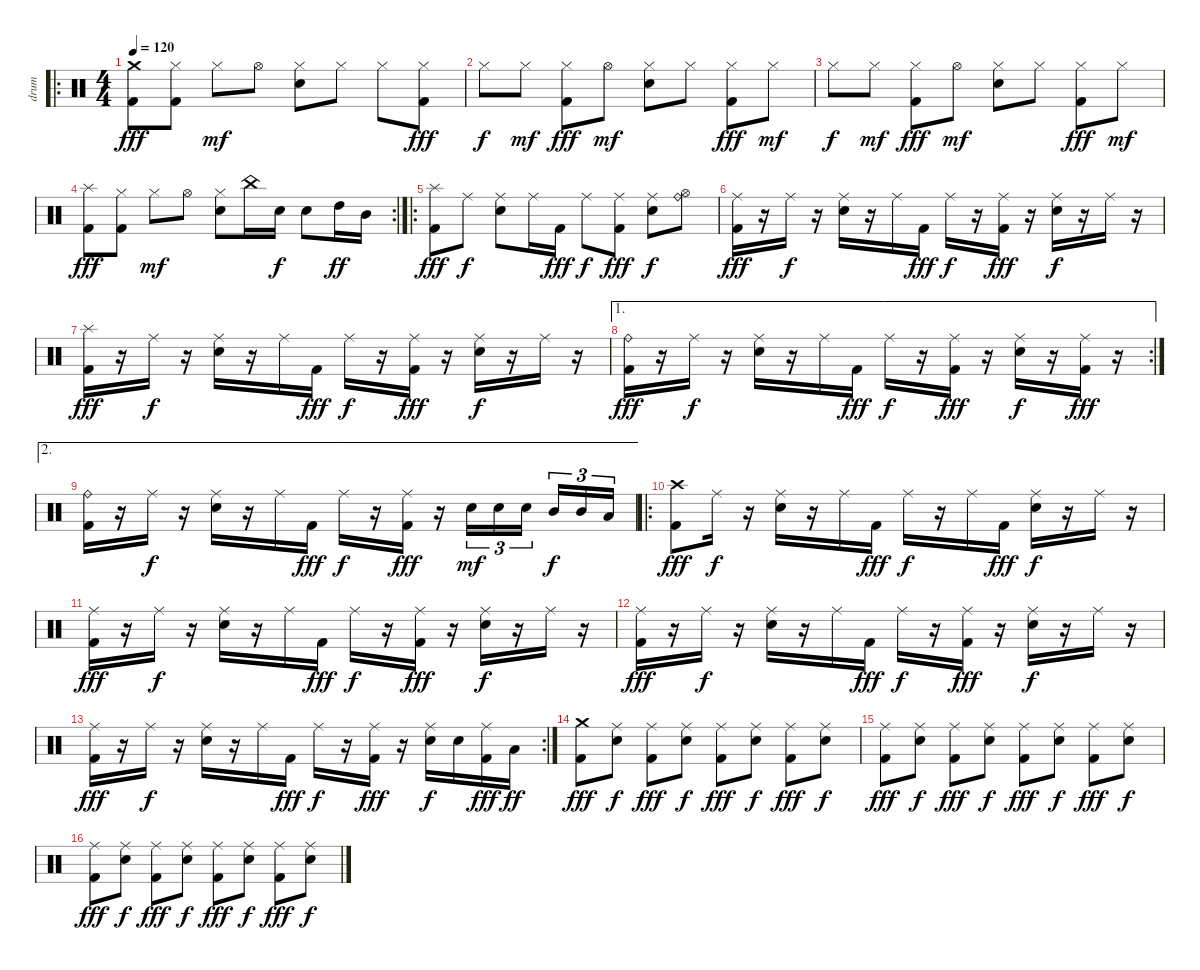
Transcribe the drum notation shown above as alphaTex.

\track ("drum" "drum") {instrument percussion}
\staff {score}
\articulation defaults
\ro
\ts (4 4)
\tempo 120
\clef neutral
\ks c
("Crash medium (hit)" "Kick (hit) 2").8{dy fff} ("Hi-Hat (closed)" "Kick (hit) 2").8 "Hi-Hat (closed)".8{dy mf} "Hi-Hat (open)".8 ("Hi-Hat (closed)" "Electric Snare (hit)").8 "Hi-Hat (closed)".8 "Hi-Hat (closed)".8 ("Hi-Hat (closed)" "Kick (hit) 2").8{dy fff} |
"Hi-Hat (closed)".8{dy f} "Hi-Hat (closed)".8{dy mf} ("Hi-Hat (closed)" "Kick (hit) 2").8{dy fff} "Hi-Hat (open)".8{dy mf} ("Hi-Hat (closed)" "Electric Snare (hit)").8 "Hi-Hat (closed)".8 ("Hi-Hat (closed)" "Kick (hit) 2").8{dy fff} "Hi-Hat (closed)".8{dy mf} |
"Hi-Hat (closed)".8{dy f} "Hi-Hat (closed)".8{dy mf} ("Hi-Hat (closed)" "Kick (hit) 2").8{dy fff} "Hi-Hat (open)".8{dy mf} ("Hi-Hat (closed)" "Electric Snare (hit)").8 "Hi-Hat (closed)".8 ("Hi-Hat (closed)" "Kick (hit) 2").8{dy fff} "Hi-Hat (closed)".8{dy mf} |
\rc 2
("Splash (hit)" "Kick (hit) 2").8{dy fff} ("Hi-Hat (closed)" "Kick (hit) 2").8 "Hi-Hat (closed)".8{dy mf} "Hi-Hat (open)".8 ("Hi-Hat (closed)" "Electric Snare (hit)").8 "China (hit)".16 "Electric Snare (hit)".16{dy f} "Electric Snare (hit)".8 "High Tom (hit)".16{dy ff} "Mid Tom (hit)".16 |
\ro
("Splash (hit)" "Kick (hit) 2").8{dy fff} "Ride (middle)".8{dy f} ("Ride (middle)" "Electric Snare (hit)").8 "Ride (middle)".16 "Kick (hit) 2".16{dy fff} "Ride (middle)".8{dy f} ("Ride (middle)" "Kick (hit) 2").8{dy fff} ("Ride (middle)" "Electric Snare (hit)").8{dy f} ("Ride (bell)" "Hi-Hat (open)").8 |
("Ride (middle)" "Kick (hit) 2").16{dy fff} r.16 "Ride (middle)".16{dy f} r.16 ("Ride (middle)" "Electric Snare (hit)").16 r.16 "Ride (middle)".16 "Kick (hit) 2".16{dy fff} "Ride (middle)".16{dy f} r.16 ("Ride (middle)" "Kick (hit) 2").16{dy fff} r.16 ("Ride (middle)" "Electric Snare (hit)").16{dy f} r.16 "Ride (middle)".16 r.16 |
("Splash (hit)" "Kick (hit) 2").16{dy fff} r.16 "Ride (middle)".16{dy f} r.16 ("Ride (middle)" "Electric Snare (hit)").16 r.16 "Ride (middle)".16 "Kick (hit) 2".16{dy fff} "Ride (middle)".16{dy f} r.16 ("Ride (middle)" "Kick (hit) 2").16{dy fff} r.16 ("Ride (middle)" "Electric Snare (hit)").16{dy f} r.16 "Ride (middle)".16 r.16 |
\ae 1
\rc 2
("Ride (bell)" "Kick (hit) 2").16{dy fff} r.16 "Ride (middle)".16{dy f} r.16 ("Ride (middle)" "Electric Snare (hit)").16 r.16 "Ride (middle)".16 "Kick (hit) 2".16{dy fff} "Ride (middle)".16{dy f} r.16 ("Ride (middle)" "Kick (hit) 2").16{dy fff} r.16 ("Ride (middle)" "Electric Snare (hit)").16{dy f} r.16 ("Ride (middle)" "Kick (hit) 2").16{dy fff} r.16 |
\ae 2
("Ride (bell)" "Kick (hit) 2").16 r.16 "Ride (middle)".16{dy f} r.16 ("Ride (middle)" "Electric Snare (hit)").16 r.16 "Ride (middle)".16 "Kick (hit) 2".16{dy fff} "Ride (middle)".16{dy f} r.16 ("Ride (middle)" "Kick (hit) 2").16{dy fff} r.16 "Electric Snare (hit)".16{tu (3 2) dy mf} "Electric Snare (hit)".16{tu (3 2)} "Electric Snare (hit)".16{tu (3 2)} "Mid Tom (hit)".16{tu (3 2) dy f} "Mid Tom (hit)".16{tu (3 2)} "Low Tom (hit)".16{tu (3 2)} |
\ro
("Crash high (hit)" "Kick (hit) 2").8{dy fff} "Ride (middle)".16{dy f} r.16 ("Ride (middle)" "Electric Snare (hit)").16 r.16 "Ride (middle)".16 "Kick (hit) 2".16{dy fff} "Ride (middle)".16{dy f} r.16 "Ride (middle)".16 "Kick (hit) 2".16{dy fff} ("Ride (middle)" "Electric Snare (hit)").16{dy f} r.16 "Ride (middle)".16 r.16 |
("Ride (middle)" "Kick (hit) 2").16{dy fff} r.16 "Ride (middle)".16{dy f} r.16 ("Ride (middle)" "Electric Snare (hit)").16 r.16 "Ride (middle)".16 "Kick (hit) 2".16{dy fff} "Ride (middle)".16{dy f} r.16 ("Ride (middle)" "Kick (hit) 2").16{dy fff} r.16 ("Ride (middle)" "Electric Snare (hit)").16{dy f} r.16 "Ride (middle)".16 r.16 |
("Ride (middle)" "Kick (hit) 2").16{dy fff} r.16 "Ride (middle)".16{dy f} r.16 ("Ride (middle)" "Electric Snare (hit)").16 r.16 "Ride (middle)".16 "Kick (hit) 2".16{dy fff} "Ride (middle)".16{dy f} r.16 ("Ride (middle)" "Kick (hit) 2").16{dy fff} r.16 ("Ride (middle)" "Electric Snare (hit)").16{dy f} r.16 "Ride (middle)".16 r.16 |
\rc 2
("Ride (middle)" "Kick (hit) 2").16{dy fff} r.16 "Ride (middle)".16{dy f} r.16 ("Ride (middle)" "Electric Snare (hit)").16 r.16 "Ride (middle)".16 "Kick (hit) 2".16{dy fff} "Ride (middle)".16{dy f} r.16 ("Ride (middle)" "Kick (hit) 2").16{dy fff} r.16 ("Ride (middle)" "Electric Snare (hit)").16{dy f} "Electric Snare (hit)".16 ("Ride (middle)" "Kick (hit) 2").16{dy fff} "Low Tom (hit)".16{dy ff} |
("Crash medium (hit)" "Kick (hit) 2").8{dy fff} ("Ride (middle)" "Electric Snare (hit)").8{dy f} ("Ride (middle)" "Kick (hit) 2").8{dy fff} ("Ride (middle)" "Electric Snare (hit)").8{dy f} ("Ride (middle)" "Kick (hit) 2").8{dy fff} ("Ride (middle)" "Electric Snare (hit)").8{dy f} ("Ride (middle)" "Kick (hit) 2").8{dy fff} ("Ride (middle)" "Electric Snare (hit)").8{dy f} |
("Ride (middle)" "Kick (hit) 2").8{dy fff} ("Ride (middle)" "Electric Snare (hit)").8{dy f} ("Ride (middle)" "Kick (hit) 2").8{dy fff} ("Ride (middle)" "Electric Snare (hit)").8{dy f} ("Ride (middle)" "Kick (hit) 2").8{dy fff} ("Ride (middle)" "Electric Snare (hit)").8{dy f} ("Ride (middle)" "Kick (hit) 2").8{dy fff} ("Ride (middle)" "Electric Snare (hit)").8{dy f} |
("Ride (middle)" "Kick (hit) 2").8{dy fff} ("Ride (middle)" "Electric Snare (hit)").8{dy f} ("Ride (middle)" "Kick (hit) 2").8{dy fff} ("Ride (middle)" "Electric Snare (hit)").8{dy f} ("Ride (middle)" "Kick (hit) 2").8{dy fff} ("Ride (middle)" "Electric Snare (hit)").8{dy f} ("Ride (middle)" "Kick (hit) 2").8{dy fff} ("Ride (middle)" "Electric Snare (hit)").8{dy f}
